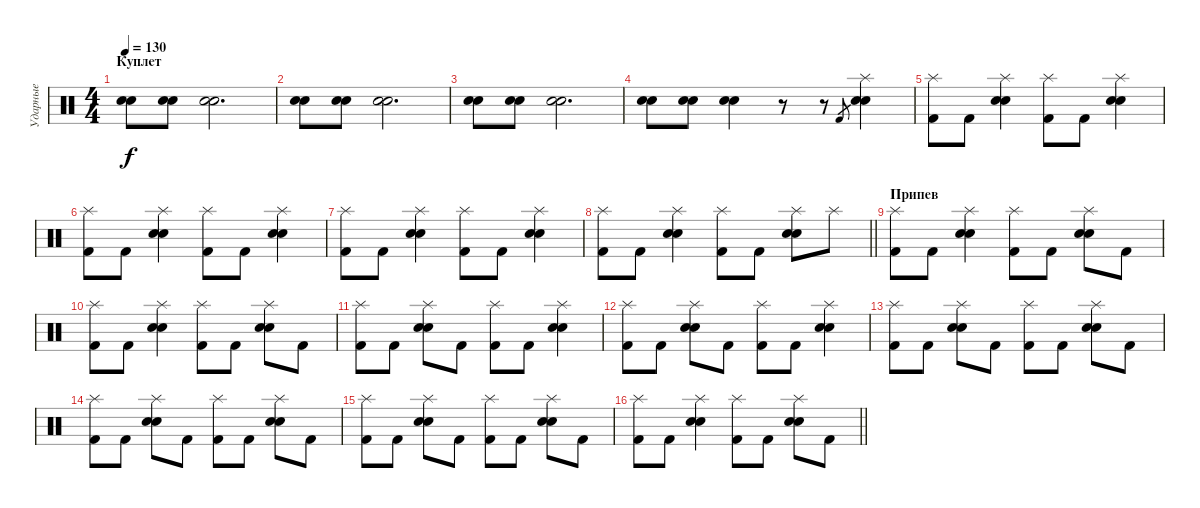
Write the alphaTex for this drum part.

\track ("Ударные" "Ударные") {instrument percussion}
\staff {score}
\articulation defaults
\ts (4 4)
\section ("" "Куплет")
\tempo 130
\clef neutral
\ks c
("Electric Snare (hit)" "Snare (hit) 2").8{dy f} ("Electric Snare (hit)" "Snare (hit) 2").8 ("Electric Snare (hit)" "Snare (hit) 2").2{d} |
("Electric Snare (hit)" "Snare (hit) 2").8 ("Electric Snare (hit)" "Snare (hit) 2").8 ("Electric Snare (hit)" "Snare (hit) 2").2{d} |
("Electric Snare (hit)" "Snare (hit) 2").8 ("Electric Snare (hit)" "Snare (hit) 2").8 ("Electric Snare (hit)" "Snare (hit) 2").2{d} |
("Electric Snare (hit)" "Snare (hit) 2").8 ("Electric Snare (hit)" "Snare (hit) 2").8 ("Electric Snare (hit)" "Snare (hit) 2").4 r.8 r.8 "Kick (hit) 2".8{gr} ("Splash (hit)" "Electric Snare (hit)" "Snare (hit) 2").4 |
("Splash (hit)" "Kick (hit) 2").8 "Kick (hit) 2".8 ("Splash (hit)" "Electric Snare (hit)" "Snare (hit) 2").4 ("Splash (hit)" "Kick (hit) 2").8 "Kick (hit) 2".8 ("Splash (hit)" "Electric Snare (hit)" "Snare (hit) 2").4 |
("Splash (hit)" "Kick (hit) 2").8 "Kick (hit) 2".8 ("Splash (hit)" "Electric Snare (hit)" "Snare (hit) 2").4 ("Splash (hit)" "Kick (hit) 2").8 "Kick (hit) 2".8 ("Splash (hit)" "Electric Snare (hit)" "Snare (hit) 2").4 |
("Splash (hit)" "Kick (hit) 2").8 "Kick (hit) 2".8 ("Splash (hit)" "Electric Snare (hit)" "Snare (hit) 2").4 ("Splash (hit)" "Kick (hit) 2").8 "Kick (hit) 2".8 ("Splash (hit)" "Electric Snare (hit)" "Snare (hit) 2").4 |
\barLineRight lightlight
("Splash (hit)" "Kick (hit) 2").8 "Kick (hit) 2".8 ("Splash (hit)" "Electric Snare (hit)" "Snare (hit) 2").4 ("Splash (hit)" "Kick (hit) 2").8 "Kick (hit) 2".8 ("Splash (hit)" "Electric Snare (hit)" "Snare (hit) 2").8 "Splash (hit)".8 |
\section ("" "Припев")
("Splash (hit)" "Kick (hit) 2").8 "Kick (hit) 2".8 ("Splash (hit)" "Electric Snare (hit)" "Snare (hit) 2").4 ("Splash (hit)" "Kick (hit) 2").8 "Kick (hit) 2".8 ("Splash (hit)" "Electric Snare (hit)" "Snare (hit) 2").8 "Kick (hit) 2".8 |
("Splash (hit)" "Kick (hit) 2").8 "Kick (hit) 2".8 ("Splash (hit)" "Electric Snare (hit)" "Snare (hit) 2").4 ("Splash (hit)" "Kick (hit) 2").8 "Kick (hit) 2".8 ("Splash (hit)" "Electric Snare (hit)" "Snare (hit) 2").8 "Kick (hit) 2".8 |
("Splash (hit)" "Kick (hit) 2").8 "Kick (hit) 2".8 ("Splash (hit)" "Electric Snare (hit)" "Snare (hit) 2").8 "Kick (hit) 2".8 ("Splash (hit)" "Kick (hit) 2").8 "Kick (hit) 2".8 ("Splash (hit)" "Electric Snare (hit)" "Snare (hit) 2").4 |
("Splash (hit)" "Kick (hit) 2").8 "Kick (hit) 2".8 ("Splash (hit)" "Electric Snare (hit)" "Snare (hit) 2").8 "Kick (hit) 2".8 ("Splash (hit)" "Kick (hit) 2").8 "Kick (hit) 2".8 ("Splash (hit)" "Electric Snare (hit)" "Snare (hit) 2").4 |
("Splash (hit)" "Kick (hit) 2").8 "Kick (hit) 2".8 ("Splash (hit)" "Electric Snare (hit)" "Snare (hit) 2").8 "Kick (hit) 2".8 ("Splash (hit)" "Kick (hit) 2").8 "Kick (hit) 2".8 ("Splash (hit)" "Electric Snare (hit)" "Snare (hit) 2").8 "Kick (hit) 2".8 |
("Splash (hit)" "Kick (hit) 2").8 "Kick (hit) 2".8 ("Splash (hit)" "Electric Snare (hit)" "Snare (hit) 2").8 "Kick (hit) 2".8 ("Splash (hit)" "Kick (hit) 2").8 "Kick (hit) 2".8 ("Splash (hit)" "Electric Snare (hit)" "Snare (hit) 2").8 "Kick (hit) 2".8 |
("Splash (hit)" "Kick (hit) 2").8 "Kick (hit) 2".8 ("Splash (hit)" "Electric Snare (hit)" "Snare (hit) 2").8 "Kick (hit) 2".8 ("Splash (hit)" "Kick (hit) 2").8 "Kick (hit) 2".8 ("Splash (hit)" "Electric Snare (hit)" "Snare (hit) 2").8 "Kick (hit) 2".8 |
\barLineRight lightlight
("Splash (hit)" "Kick (hit) 2").8 "Kick (hit) 2".8 ("Splash (hit)" "Electric Snare (hit)" "Snare (hit) 2").4 ("Splash (hit)" "Kick (hit) 2").8 "Kick (hit) 2".8 ("Splash (hit)" "Electric Snare (hit)" "Snare (hit) 2").8 "Kick (hit) 2".8
